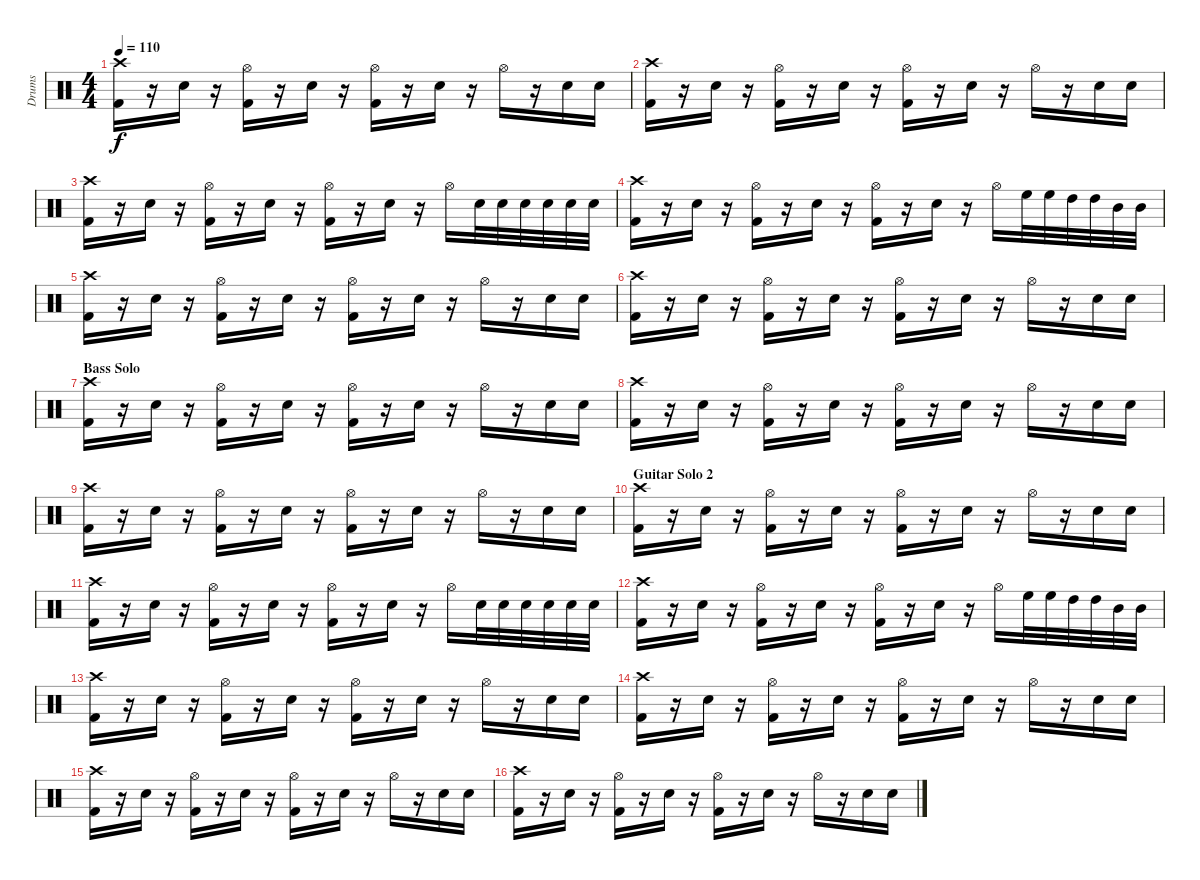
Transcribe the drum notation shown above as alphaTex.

\track ("Drums" "Drums") {instrument percussion}
\staff {score}
\articulation defaults
\ts (4 4)
\tempo 110
\clef neutral
\ks c
("Crash high (hit)" "Kick (hit) 2").16{dy f} r.16 "Snare (hit) 2".16 r.16 ("Hi-Hat (open)" "Kick (hit) 2").16 r.16 "Snare (hit) 2".16 r.16 ("Hi-Hat (open)" "Kick (hit) 2").16 r.16 "Snare (hit) 2".16 r.16 "Hi-Hat (open)".16 r.16 "Snare (hit) 2".16 "Snare (hit) 2".16 |
("Crash high (hit)" "Kick (hit) 2").16 r.16 "Snare (hit) 2".16 r.16 ("Hi-Hat (open)" "Kick (hit) 2").16 r.16 "Snare (hit) 2".16 r.16 ("Hi-Hat (open)" "Kick (hit) 2").16 r.16 "Snare (hit) 2".16 r.16 "Hi-Hat (open)".16 r.16 "Snare (hit) 2".16 "Snare (hit) 2".16 |
("Crash high (hit)" "Kick (hit) 2").16 r.16 "Snare (hit) 2".16 r.16 ("Hi-Hat (open)" "Kick (hit) 2").16 r.16 "Snare (hit) 2".16 r.16 ("Hi-Hat (open)" "Kick (hit) 2").16 r.16 "Snare (hit) 2".16 r.16 "Hi-Hat (open)".16 "Snare (hit) 2".32 "Snare (hit) 2".32 "Snare (hit) 2".32 "Snare (hit) 2".32 "Snare (hit) 2".32 "Snare (hit) 2".32 |
("Crash high (hit)" "Kick (hit) 2").16 r.16 "Snare (hit) 2".16 r.16 ("Hi-Hat (open)" "Kick (hit) 2").16 r.16 "Snare (hit) 2".16 r.16 ("Hi-Hat (open)" "Kick (hit) 2").16 r.16 "Snare (hit) 2".16 r.16 "Hi-Hat (open)".16 "High Floor Tom (hit)".32 "High Floor Tom (hit)".32 "High Tom (hit)".32 "High Tom (hit)".32 "Mid Tom (hit)".32 "Mid Tom (hit)".32 |
("Crash high (hit)" "Kick (hit) 2").16 r.16 "Snare (hit) 2".16 r.16 ("Hi-Hat (open)" "Kick (hit) 2").16 r.16 "Snare (hit) 2".16 r.16 ("Hi-Hat (open)" "Kick (hit) 2").16 r.16 "Snare (hit) 2".16 r.16 "Hi-Hat (open)".16 r.16 "Snare (hit) 2".16 "Snare (hit) 2".16 |
("Crash high (hit)" "Kick (hit) 2").16 r.16 "Snare (hit) 2".16 r.16 ("Hi-Hat (open)" "Kick (hit) 2").16 r.16 "Snare (hit) 2".16 r.16 ("Hi-Hat (open)" "Kick (hit) 2").16 r.16 "Snare (hit) 2".16 r.16 "Hi-Hat (open)".16 r.16 "Snare (hit) 2".16 "Snare (hit) 2".16 |
\section ("" "Bass Solo")
("Crash high (hit)" "Kick (hit) 2").16 r.16 "Snare (hit) 2".16 r.16 ("Hi-Hat (open)" "Kick (hit) 2").16 r.16 "Snare (hit) 2".16 r.16 ("Hi-Hat (open)" "Kick (hit) 2").16 r.16 "Snare (hit) 2".16 r.16 "Hi-Hat (open)".16 r.16 "Snare (hit) 2".16 "Snare (hit) 2".16 |
("Crash high (hit)" "Kick (hit) 2").16 r.16 "Snare (hit) 2".16 r.16 ("Hi-Hat (open)" "Kick (hit) 2").16 r.16 "Snare (hit) 2".16 r.16 ("Hi-Hat (open)" "Kick (hit) 2").16 r.16 "Snare (hit) 2".16 r.16 "Hi-Hat (open)".16 r.16 "Snare (hit) 2".16 "Snare (hit) 2".16 |
("Crash high (hit)" "Kick (hit) 2").16 r.16 "Snare (hit) 2".16 r.16 ("Hi-Hat (open)" "Kick (hit) 2").16 r.16 "Snare (hit) 2".16 r.16 ("Hi-Hat (open)" "Kick (hit) 2").16 r.16 "Snare (hit) 2".16 r.16 "Hi-Hat (open)".16 r.16 "Snare (hit) 2".16 "Snare (hit) 2".16 |
\section ("" "Guitar Solo 2")
("Crash high (hit)" "Kick (hit) 2").16 r.16 "Snare (hit) 2".16 r.16 ("Hi-Hat (open)" "Kick (hit) 2").16 r.16 "Snare (hit) 2".16 r.16 ("Hi-Hat (open)" "Kick (hit) 2").16 r.16 "Snare (hit) 2".16 r.16 "Hi-Hat (open)".16 r.16 "Snare (hit) 2".16 "Snare (hit) 2".16 |
("Crash high (hit)" "Kick (hit) 2").16 r.16 "Snare (hit) 2".16 r.16 ("Hi-Hat (open)" "Kick (hit) 2").16 r.16 "Snare (hit) 2".16 r.16 ("Hi-Hat (open)" "Kick (hit) 2").16 r.16 "Snare (hit) 2".16 r.16 "Hi-Hat (open)".16 "Snare (hit) 2".32 "Snare (hit) 2".32 "Snare (hit) 2".32 "Snare (hit) 2".32 "Snare (hit) 2".32 "Snare (hit) 2".32 |
("Crash high (hit)" "Kick (hit) 2").16 r.16 "Snare (hit) 2".16 r.16 ("Hi-Hat (open)" "Kick (hit) 2").16 r.16 "Snare (hit) 2".16 r.16 ("Hi-Hat (open)" "Kick (hit) 2").16 r.16 "Snare (hit) 2".16 r.16 "Hi-Hat (open)".16 "High Floor Tom (hit)".32 "High Floor Tom (hit)".32 "High Tom (hit)".32 "High Tom (hit)".32 "Mid Tom (hit)".32 "Mid Tom (hit)".32 |
("Crash high (hit)" "Kick (hit) 2").16 r.16 "Snare (hit) 2".16 r.16 ("Hi-Hat (open)" "Kick (hit) 2").16 r.16 "Snare (hit) 2".16 r.16 ("Hi-Hat (open)" "Kick (hit) 2").16 r.16 "Snare (hit) 2".16 r.16 "Hi-Hat (open)".16 r.16 "Snare (hit) 2".16 "Snare (hit) 2".16 |
("Crash high (hit)" "Kick (hit) 2").16 r.16 "Snare (hit) 2".16 r.16 ("Hi-Hat (open)" "Kick (hit) 2").16 r.16 "Snare (hit) 2".16 r.16 ("Hi-Hat (open)" "Kick (hit) 2").16 r.16 "Snare (hit) 2".16 r.16 "Hi-Hat (open)".16 r.16 "Snare (hit) 2".16 "Snare (hit) 2".16 |
("Crash high (hit)" "Kick (hit) 2").16 r.16 "Snare (hit) 2".16 r.16 ("Hi-Hat (open)" "Kick (hit) 2").16 r.16 "Snare (hit) 2".16 r.16 ("Hi-Hat (open)" "Kick (hit) 2").16 r.16 "Snare (hit) 2".16 r.16 "Hi-Hat (open)".16 r.16 "Snare (hit) 2".16 "Snare (hit) 2".16 |
("Crash high (hit)" "Kick (hit) 2").16 r.16 "Snare (hit) 2".16 r.16 ("Hi-Hat (open)" "Kick (hit) 2").16 r.16 "Snare (hit) 2".16 r.16 ("Hi-Hat (open)" "Kick (hit) 2").16 r.16 "Snare (hit) 2".16 r.16 "Hi-Hat (open)".16 r.16 "Snare (hit) 2".16 "Snare (hit) 2".16
